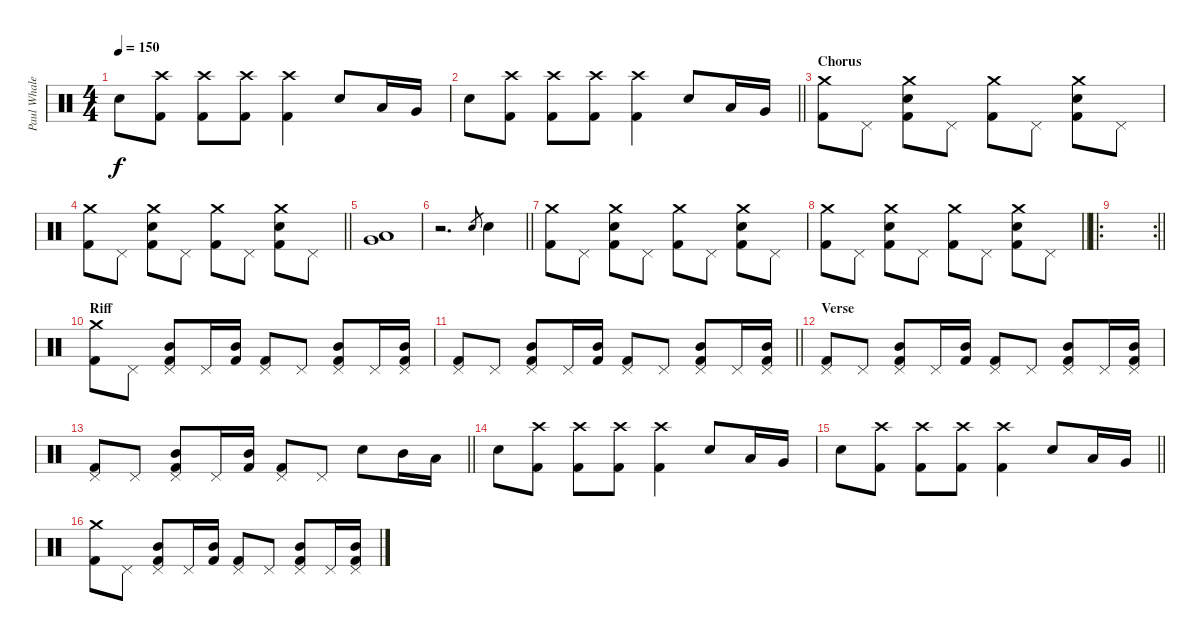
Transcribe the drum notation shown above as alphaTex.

\track ("Paul Whaley" "Paul Whale") {instrument percussion}
\staff {score}
\articulation defaults
\ts (4 4)
\tempo 150
\clef neutral
\ks c "Snare (hit) 2".8{dy f}
("Kick (hit) 2" "Crash high (hit)").8 ("Kick (hit) 2" "Crash high (hit)").8 ("Kick (hit) 2" "Crash high (hit)").8 ("Kick (hit) 2" "Crash high (hit)").4 "Snare (hit) 2".8 "Low Tom (hit)".16 "Very Low Tom (hit)".16 |
\barLineRight lightlight "Snare (hit) 2".8
("Kick (hit) 2" "Crash high (hit)").8 ("Kick (hit) 2" "Crash high (hit)").8 ("Kick (hit) 2" "Crash high (hit)").8 ("Kick (hit) 2" "Crash high (hit)").4 "Snare (hit) 2".8 "Low Tom (hit)".16 "Very Low Tom (hit)".16 |
\section ("" "Chorus")
("Kick (hit) 2" "Crash medium (hit)").8 "Pedal Hi-Hat (hit)".8 ("Kick (hit) 2" "Snare (hit) 2" "Crash medium (hit)").8 "Pedal Hi-Hat (hit)".8 ("Kick (hit) 2" "Crash medium (hit)").8 "Pedal Hi-Hat (hit)".8 ("Kick (hit) 2" "Snare (hit) 2" "Crash medium (hit)").8 "Pedal Hi-Hat (hit)".8 |
\barLineRight lightlight
("Kick (hit) 2" "Crash medium (hit)").8 "Pedal Hi-Hat (hit)".8 ("Kick (hit) 2" "Snare (hit) 2" "Crash medium (hit)").8 "Pedal Hi-Hat (hit)".8 ("Kick (hit) 2" "Crash medium (hit)").8 "Pedal Hi-Hat (hit)".8 ("Kick (hit) 2" "Snare (hit) 2" "Crash medium (hit)").8 "Pedal Hi-Hat (hit)".8 |
("Low Tom (hit)" "Very Low Tom (hit)").1 |
\barLineRight lightlight
r.2{d} "Snare (hit) 2".8{gr} "Snare (hit) 2".4 |
("Kick (hit) 2" "Crash medium (hit)").8 "Pedal Hi-Hat (hit)".8 ("Kick (hit) 2" "Snare (hit) 2" "Crash medium (hit)").8 "Pedal Hi-Hat (hit)".8 ("Kick (hit) 2" "Crash medium (hit)").8 "Pedal Hi-Hat (hit)".8 ("Kick (hit) 2" "Snare (hit) 2" "Crash medium (hit)").8 "Pedal Hi-Hat (hit)".8 |
\barLineRight lightlight
("Kick (hit) 2" "Crash medium (hit)").8 "Pedal Hi-Hat (hit)".8 ("Kick (hit) 2" "Snare (hit) 2" "Crash medium (hit)").8 "Pedal Hi-Hat (hit)".8 ("Kick (hit) 2" "Crash medium (hit)").8 "Pedal Hi-Hat (hit)".8 ("Kick (hit) 2" "Snare (hit) 2" "Crash medium (hit)").8 "Pedal Hi-Hat (hit)".8 |
\ro
\rc 2
\barLineRight lightlight
|
\section ("" "Riff")
("Kick (hit) 2" "Crash medium (hit)").8 "Pedal Hi-Hat (hit)".8 ("Kick (hit) 2" "Mid Tom (hit)" "Pedal Hi-Hat (hit)").8 "Pedal Hi-Hat (hit)".16 ("Kick (hit) 2" "Mid Tom (hit)").16 ("Kick (hit) 2" "Pedal Hi-Hat (hit)").8 "Pedal Hi-Hat (hit)".8 ("Kick (hit) 2" "Mid Tom (hit)" "Pedal Hi-Hat (hit)").8 "Pedal Hi-Hat (hit)".16 ("Kick (hit) 2" "Mid Tom (hit)" "Pedal Hi-Hat (hit)").16 |
\barLineRight lightlight
("Kick (hit) 2" "Pedal Hi-Hat (hit)").8 "Pedal Hi-Hat (hit)".8 ("Kick (hit) 2" "Mid Tom (hit)" "Pedal Hi-Hat (hit)").8 "Pedal Hi-Hat (hit)".16 ("Kick (hit) 2" "Mid Tom (hit)").16 ("Kick (hit) 2" "Pedal Hi-Hat (hit)").8 "Pedal Hi-Hat (hit)".8 ("Kick (hit) 2" "Mid Tom (hit)" "Pedal Hi-Hat (hit)").8 "Pedal Hi-Hat (hit)".16 ("Kick (hit) 2" "Mid Tom (hit)" "Pedal Hi-Hat (hit)").16 |
\section ("" "Verse")
("Kick (hit) 2" "Pedal Hi-Hat (hit)").8 "Pedal Hi-Hat (hit)".8 ("Kick (hit) 2" "Mid Tom (hit)" "Pedal Hi-Hat (hit)").8 "Pedal Hi-Hat (hit)".16 ("Kick (hit) 2" "Mid Tom (hit)").16 ("Kick (hit) 2" "Pedal Hi-Hat (hit)").8 "Pedal Hi-Hat (hit)".8 ("Kick (hit) 2" "Mid Tom (hit)" "Pedal Hi-Hat (hit)").8 "Pedal Hi-Hat (hit)".16 ("Kick (hit) 2" "Mid Tom (hit)" "Pedal Hi-Hat (hit)").16 |
\barLineRight lightlight
("Kick (hit) 2" "Pedal Hi-Hat (hit)").8 "Pedal Hi-Hat (hit)".8 ("Kick (hit) 2" "Mid Tom (hit)" "Pedal Hi-Hat (hit)").8 "Pedal Hi-Hat (hit)".16 ("Kick (hit) 2" "Mid Tom (hit)").16 ("Kick (hit) 2" "Pedal Hi-Hat (hit)").8 "Pedal Hi-Hat (hit)".8 "Snare (hit) 2".8 "Mid Tom (hit)".16 "Low Tom (hit)".16 |
"Snare (hit) 2".8 ("Kick (hit) 2" "Crash high (hit)").8 ("Kick (hit) 2" "Crash high (hit)").8 ("Kick (hit) 2" "Crash high (hit)").8 ("Kick (hit) 2" "Crash high (hit)").4 "Snare (hit) 2".8 "Low Tom (hit)".16 "Very Low Tom (hit)".16 |
\barLineRight lightlight "Snare (hit) 2".8
("Kick (hit) 2" "Crash high (hit)").8 ("Kick (hit) 2" "Crash high (hit)").8 ("Kick (hit) 2" "Crash high (hit)").8 ("Kick (hit) 2" "Crash high (hit)").4 "Snare (hit) 2".8 "Low Tom (hit)".16 "Very Low Tom (hit)".16 |
("Kick (hit) 2" "Crash medium (hit)").8 "Pedal Hi-Hat (hit)".8 ("Kick (hit) 2" "Mid Tom (hit)" "Pedal Hi-Hat (hit)").8 "Pedal Hi-Hat (hit)".16 ("Kick (hit) 2" "Mid Tom (hit)").16 ("Kick (hit) 2" "Pedal Hi-Hat (hit)").8 "Pedal Hi-Hat (hit)".8 ("Kick (hit) 2" "Mid Tom (hit)" "Pedal Hi-Hat (hit)").8 "Pedal Hi-Hat (hit)".16 ("Kick (hit) 2" "Mid Tom (hit)" "Pedal Hi-Hat (hit)").16
